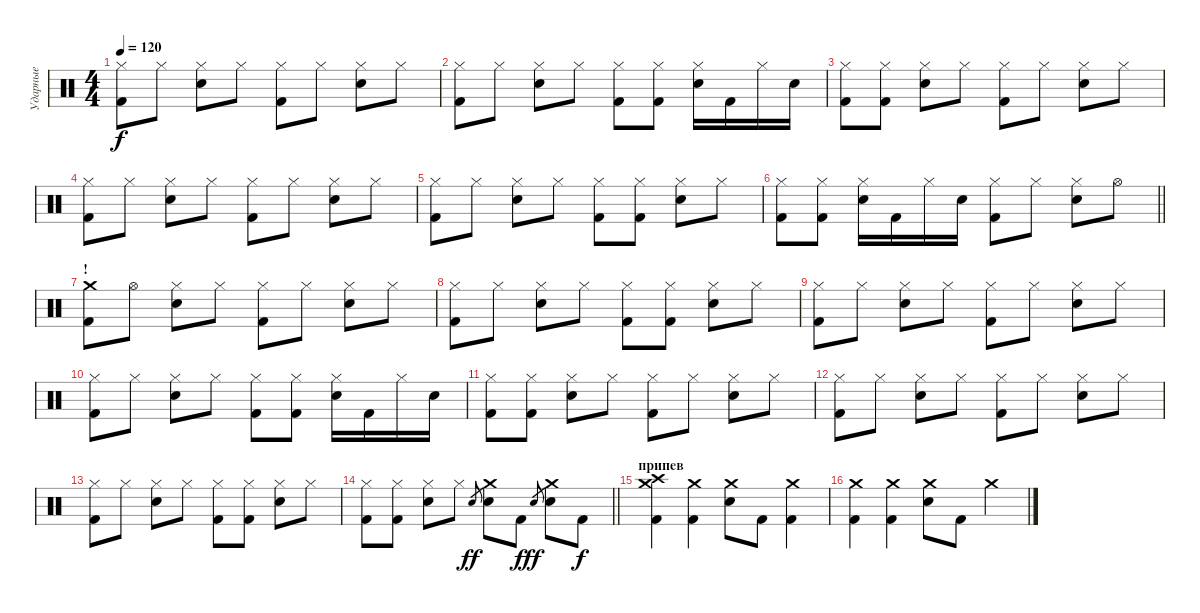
\track ("Ударные" "Ударные") {instrument percussion}
\staff {score}
\articulation defaults
\ts (4 4)
\tempo 120
\clef neutral
\ks c
("Hi-Hat (closed)" "Kick (hit) 2").8{dy f} "Hi-Hat (closed)".8 ("Hi-Hat (closed)" "Snare (hit) 2").8 "Hi-Hat (closed)".8 ("Hi-Hat (closed)" "Kick (hit) 2").8 "Hi-Hat (closed)".8 ("Hi-Hat (closed)" "Snare (hit) 2").8 "Hi-Hat (closed)".8 |
("Hi-Hat (closed)" "Kick (hit) 2").8 "Hi-Hat (closed)".8 ("Hi-Hat (closed)" "Snare (hit) 2").8 "Hi-Hat (closed)".8 ("Hi-Hat (closed)" "Kick (hit) 2").8 ("Hi-Hat (closed)" "Kick (hit) 2").8 ("Hi-Hat (closed)" "Snare (hit) 2").16 "Kick (hit) 2".16 "Hi-Hat (closed)".16 "Snare (hit) 2".16 |
("Hi-Hat (closed)" "Kick (hit) 2").8 ("Hi-Hat (closed)" "Kick (hit) 2").8 ("Hi-Hat (closed)" "Snare (hit) 2").8 "Hi-Hat (closed)".8 ("Hi-Hat (closed)" "Kick (hit) 2").8 "Hi-Hat (closed)".8 ("Hi-Hat (closed)" "Snare (hit) 2").8 "Hi-Hat (closed)".8 |
("Hi-Hat (closed)" "Kick (hit) 2").8 "Hi-Hat (closed)".8 ("Hi-Hat (closed)" "Snare (hit) 2").8 "Hi-Hat (closed)".8 ("Hi-Hat (closed)" "Kick (hit) 2").8 "Hi-Hat (closed)".8 ("Hi-Hat (closed)" "Snare (hit) 2").8 "Hi-Hat (closed)".8 |
("Hi-Hat (closed)" "Kick (hit) 2").8 "Hi-Hat (closed)".8 ("Hi-Hat (closed)" "Snare (hit) 2").8 "Hi-Hat (closed)".8 ("Hi-Hat (closed)" "Kick (hit) 2").8 ("Hi-Hat (closed)" "Kick (hit) 2").8 ("Hi-Hat (closed)" "Snare (hit) 2").8 "Hi-Hat (closed)".8 |
\barLineRight lightlight
("Hi-Hat (closed)" "Kick (hit) 2").8 ("Hi-Hat (closed)" "Kick (hit) 2").8 ("Hi-Hat (closed)" "Snare (hit) 2").16 "Kick (hit) 2".16 "Hi-Hat (closed)".16 "Snare (hit) 2".16 ("Hi-Hat (closed)" "Kick (hit) 2").8 "Hi-Hat (closed)".8 ("Hi-Hat (closed)" "Snare (hit) 2").8 "Hi-Hat (open)".8 |
\section ("" "!")
("Crash medium (hit)" "Kick (hit) 2").8 "Hi-Hat (open)".8 ("Hi-Hat (closed)" "Snare (hit) 2").8 "Hi-Hat (closed)".8 ("Hi-Hat (closed)" "Kick (hit) 2").8 "Hi-Hat (closed)".8 ("Hi-Hat (closed)" "Snare (hit) 2").8 "Hi-Hat (closed)".8 |
("Hi-Hat (closed)" "Kick (hit) 2").8 "Hi-Hat (closed)".8 ("Hi-Hat (closed)" "Snare (hit) 2").8 "Hi-Hat (closed)".8 ("Hi-Hat (closed)" "Kick (hit) 2").8 ("Hi-Hat (closed)" "Kick (hit) 2").8 ("Hi-Hat (closed)" "Snare (hit) 2").8 "Hi-Hat (closed)".8 |
("Hi-Hat (closed)" "Kick (hit) 2").8 "Hi-Hat (closed)".8 ("Hi-Hat (closed)" "Snare (hit) 2").8 "Hi-Hat (closed)".8 ("Hi-Hat (closed)" "Kick (hit) 2").8 "Hi-Hat (closed)".8 ("Hi-Hat (closed)" "Snare (hit) 2").8 "Hi-Hat (closed)".8 |
("Hi-Hat (closed)" "Kick (hit) 2").8 "Hi-Hat (closed)".8 ("Hi-Hat (closed)" "Snare (hit) 2").8 "Hi-Hat (closed)".8 ("Hi-Hat (closed)" "Kick (hit) 2").8 ("Hi-Hat (closed)" "Kick (hit) 2").8 ("Hi-Hat (closed)" "Snare (hit) 2").16 "Kick (hit) 2".16 "Hi-Hat (closed)".16 "Snare (hit) 2".16 |
("Hi-Hat (closed)" "Kick (hit) 2").8 ("Hi-Hat (closed)" "Kick (hit) 2").8 ("Hi-Hat (closed)" "Snare (hit) 2").8 "Hi-Hat (closed)".8 ("Hi-Hat (closed)" "Kick (hit) 2").8 "Hi-Hat (closed)".8 ("Hi-Hat (closed)" "Snare (hit) 2").8 "Hi-Hat (closed)".8 |
("Hi-Hat (closed)" "Kick (hit) 2").8 "Hi-Hat (closed)".8 ("Hi-Hat (closed)" "Snare (hit) 2").8 "Hi-Hat (closed)".8 ("Hi-Hat (closed)" "Kick (hit) 2").8 "Hi-Hat (closed)".8 ("Hi-Hat (closed)" "Snare (hit) 2").8 "Hi-Hat (closed)".8 |
("Hi-Hat (closed)" "Kick (hit) 2").8 "Hi-Hat (closed)".8 ("Hi-Hat (closed)" "Snare (hit) 2").8 "Hi-Hat (closed)".8 ("Hi-Hat (closed)" "Kick (hit) 2").8 ("Hi-Hat (closed)" "Kick (hit) 2").8 ("Hi-Hat (closed)" "Snare (hit) 2").8 "Hi-Hat (closed)".8 |
\barLineRight lightlight
("Hi-Hat (closed)" "Kick (hit) 2").8 ("Hi-Hat (closed)" "Kick (hit) 2").8 ("Hi-Hat (closed)" "Snare (hit) 2").8 "Hi-Hat (closed)".8 "Snare (hit) 2".8{gr dy ff} ("Crash medium (hit)" "Snare (hit) 2").8 "Kick (hit) 2".8{dy f} "Snare (hit) 2".8{gr dy ff} ("Crash medium (hit)" "Snare (hit) 2").8 "Kick (hit) 2".8{dy f} |
\section ("" "припев")
("Crash medium (hit)" "Crash high (hit)" "Kick (hit) 2").4 ("Crash medium (hit)" "Kick (hit) 2").4 ("Crash medium (hit)" "Snare (hit) 2").8 "Kick (hit) 2".8 ("Crash medium (hit)" "Kick (hit) 2").4 |
("Crash medium (hit)" "Kick (hit) 2").4 ("Crash medium (hit)" "Kick (hit) 2").4 ("Crash medium (hit)" "Snare (hit) 2").8 "Kick (hit) 2".8 "Crash medium (hit)".4
